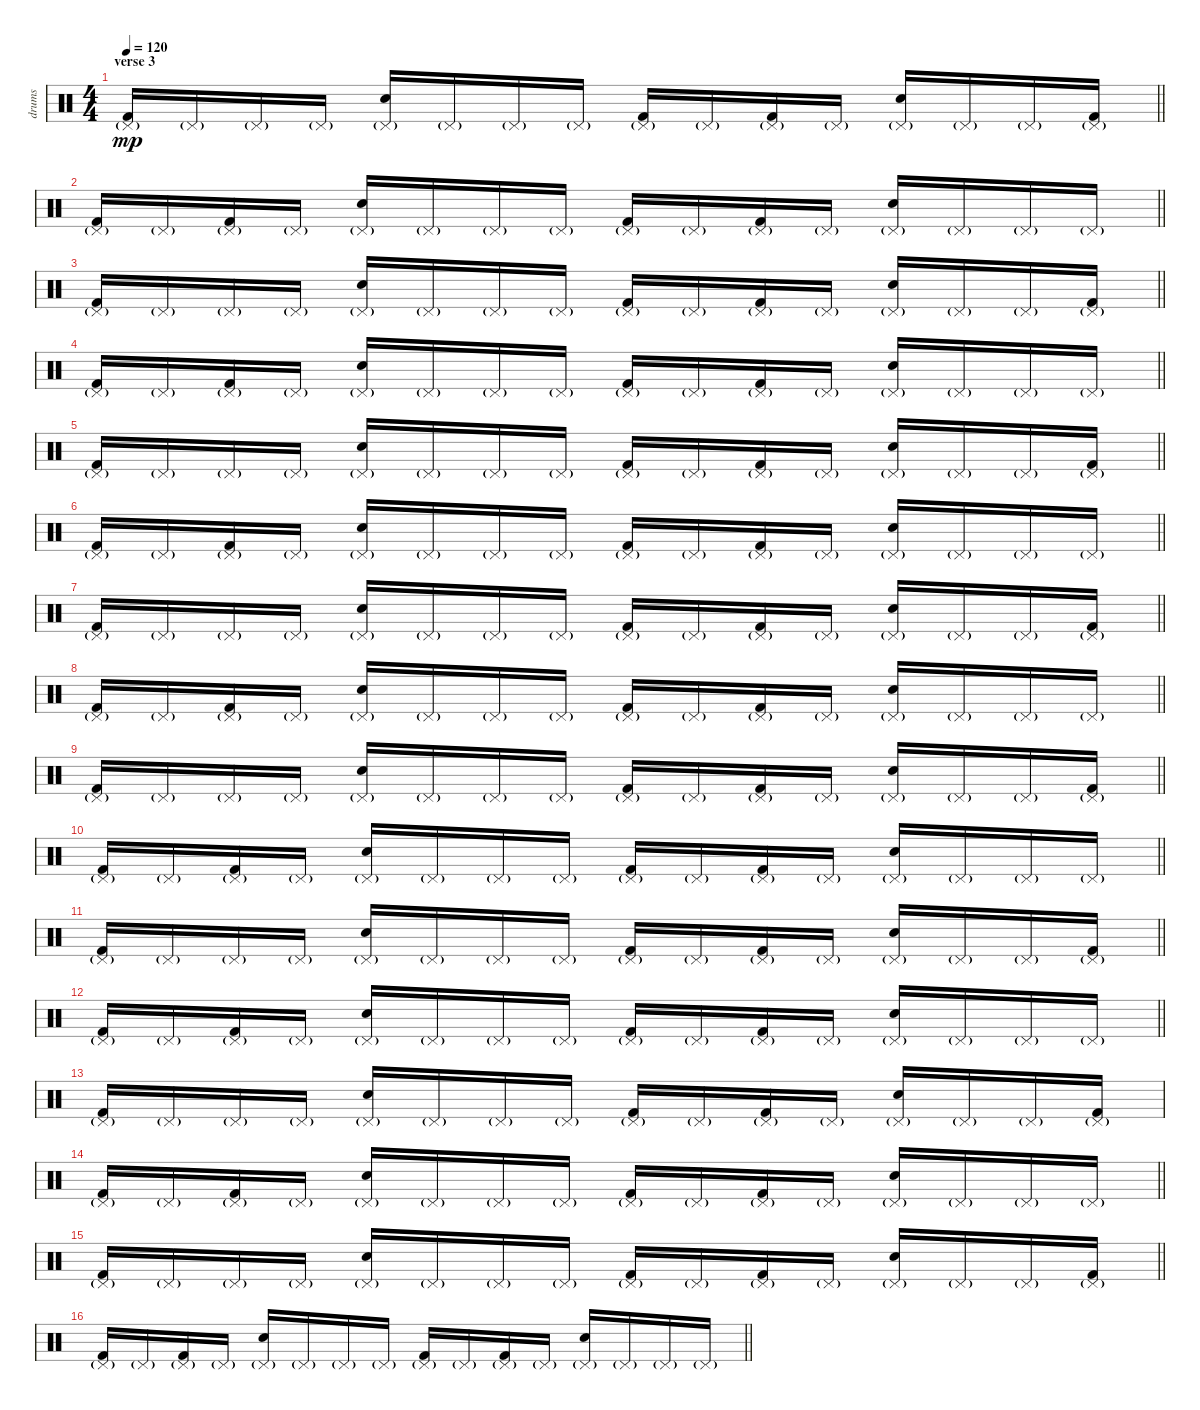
\track ("drums" "drums") {instrument percussion}
\staff {score}
\articulation defaults
\ts (4 4)
\section ("" "verse 3")
\tempo 120
\clef neutral
\barLineRight lightlight
\ks c
("Kick (hit) 2" "Pedal Hi-Hat (hit)"{g}).16{dy mp} "Pedal Hi-Hat (hit)"{g}.16 "Pedal Hi-Hat (hit)"{g}.16 "Pedal Hi-Hat (hit)"{g}.16 ("Hand Clap (hit)" "Pedal Hi-Hat (hit)"{g}).16 "Pedal Hi-Hat (hit)"{g}.16 "Pedal Hi-Hat (hit)"{g}.16 "Pedal Hi-Hat (hit)"{g}.16 ("Kick (hit) 2" "Pedal Hi-Hat (hit)"{g}).16 "Pedal Hi-Hat (hit)"{g}.16 ("Kick (hit) 2" "Pedal Hi-Hat (hit)"{g}).16 "Pedal Hi-Hat (hit)"{g}.16 ("Hand Clap (hit)" "Pedal Hi-Hat (hit)"{g}).16 "Pedal Hi-Hat (hit)"{g}.16 "Pedal Hi-Hat (hit)"{g}.16 ("Kick (hit) 2" "Pedal Hi-Hat (hit)"{g}).16 |
\barLineRight lightlight
("Kick (hit) 2" "Pedal Hi-Hat (hit)"{g}).16 "Pedal Hi-Hat (hit)"{g}.16 ("Kick (hit) 2" "Pedal Hi-Hat (hit)"{g}).16 "Pedal Hi-Hat (hit)"{g}.16 ("Hand Clap (hit)" "Pedal Hi-Hat (hit)"{g}).16 "Pedal Hi-Hat (hit)"{g}.16 "Pedal Hi-Hat (hit)"{g}.16 "Pedal Hi-Hat (hit)"{g}.16 ("Kick (hit) 2" "Pedal Hi-Hat (hit)"{g}).16 "Pedal Hi-Hat (hit)"{g}.16 ("Kick (hit) 2" "Pedal Hi-Hat (hit)"{g}).16 "Pedal Hi-Hat (hit)"{g}.16 ("Hand Clap (hit)" "Pedal Hi-Hat (hit)"{g}).16 "Pedal Hi-Hat (hit)"{g}.16 "Pedal Hi-Hat (hit)"{g}.16 "Pedal Hi-Hat (hit)"{g}.16 |
\barLineRight lightlight
("Kick (hit) 2" "Pedal Hi-Hat (hit)"{g}).16 "Pedal Hi-Hat (hit)"{g}.16 "Pedal Hi-Hat (hit)"{g}.16 "Pedal Hi-Hat (hit)"{g}.16 ("Hand Clap (hit)" "Pedal Hi-Hat (hit)"{g}).16 "Pedal Hi-Hat (hit)"{g}.16 "Pedal Hi-Hat (hit)"{g}.16 "Pedal Hi-Hat (hit)"{g}.16 ("Kick (hit) 2" "Pedal Hi-Hat (hit)"{g}).16 "Pedal Hi-Hat (hit)"{g}.16 ("Kick (hit) 2" "Pedal Hi-Hat (hit)"{g}).16 "Pedal Hi-Hat (hit)"{g}.16 ("Hand Clap (hit)" "Pedal Hi-Hat (hit)"{g}).16 "Pedal Hi-Hat (hit)"{g}.16 "Pedal Hi-Hat (hit)"{g}.16 ("Kick (hit) 2" "Pedal Hi-Hat (hit)"{g}).16 |
\barLineRight lightlight
("Kick (hit) 2" "Pedal Hi-Hat (hit)"{g}).16 "Pedal Hi-Hat (hit)"{g}.16 ("Kick (hit) 2" "Pedal Hi-Hat (hit)"{g}).16 "Pedal Hi-Hat (hit)"{g}.16 ("Hand Clap (hit)" "Pedal Hi-Hat (hit)"{g}).16 "Pedal Hi-Hat (hit)"{g}.16 "Pedal Hi-Hat (hit)"{g}.16 "Pedal Hi-Hat (hit)"{g}.16 ("Kick (hit) 2" "Pedal Hi-Hat (hit)"{g}).16 "Pedal Hi-Hat (hit)"{g}.16 ("Kick (hit) 2" "Pedal Hi-Hat (hit)"{g}).16 "Pedal Hi-Hat (hit)"{g}.16 ("Hand Clap (hit)" "Pedal Hi-Hat (hit)"{g}).16 "Pedal Hi-Hat (hit)"{g}.16 "Pedal Hi-Hat (hit)"{g}.16 "Pedal Hi-Hat (hit)"{g}.16 |
\barLineRight lightlight
("Kick (hit) 2" "Pedal Hi-Hat (hit)"{g}).16 "Pedal Hi-Hat (hit)"{g}.16 "Pedal Hi-Hat (hit)"{g}.16 "Pedal Hi-Hat (hit)"{g}.16 ("Hand Clap (hit)" "Pedal Hi-Hat (hit)"{g}).16 "Pedal Hi-Hat (hit)"{g}.16 "Pedal Hi-Hat (hit)"{g}.16 "Pedal Hi-Hat (hit)"{g}.16 ("Kick (hit) 2" "Pedal Hi-Hat (hit)"{g}).16 "Pedal Hi-Hat (hit)"{g}.16 ("Kick (hit) 2" "Pedal Hi-Hat (hit)"{g}).16 "Pedal Hi-Hat (hit)"{g}.16 ("Hand Clap (hit)" "Pedal Hi-Hat (hit)"{g}).16 "Pedal Hi-Hat (hit)"{g}.16 "Pedal Hi-Hat (hit)"{g}.16 ("Kick (hit) 2" "Pedal Hi-Hat (hit)"{g}).16 |
\barLineRight lightlight
("Kick (hit) 2" "Pedal Hi-Hat (hit)"{g}).16 "Pedal Hi-Hat (hit)"{g}.16 ("Kick (hit) 2" "Pedal Hi-Hat (hit)"{g}).16 "Pedal Hi-Hat (hit)"{g}.16 ("Hand Clap (hit)" "Pedal Hi-Hat (hit)"{g}).16 "Pedal Hi-Hat (hit)"{g}.16 "Pedal Hi-Hat (hit)"{g}.16 "Pedal Hi-Hat (hit)"{g}.16 ("Kick (hit) 2" "Pedal Hi-Hat (hit)"{g}).16 "Pedal Hi-Hat (hit)"{g}.16 ("Kick (hit) 2" "Pedal Hi-Hat (hit)"{g}).16 "Pedal Hi-Hat (hit)"{g}.16 ("Hand Clap (hit)" "Pedal Hi-Hat (hit)"{g}).16 "Pedal Hi-Hat (hit)"{g}.16 "Pedal Hi-Hat (hit)"{g}.16 "Pedal Hi-Hat (hit)"{g}.16 |
\barLineRight lightlight
("Kick (hit) 2" "Pedal Hi-Hat (hit)"{g}).16 "Pedal Hi-Hat (hit)"{g}.16 "Pedal Hi-Hat (hit)"{g}.16 "Pedal Hi-Hat (hit)"{g}.16 ("Hand Clap (hit)" "Pedal Hi-Hat (hit)"{g}).16 "Pedal Hi-Hat (hit)"{g}.16 "Pedal Hi-Hat (hit)"{g}.16 "Pedal Hi-Hat (hit)"{g}.16 ("Kick (hit) 2" "Pedal Hi-Hat (hit)"{g}).16 "Pedal Hi-Hat (hit)"{g}.16 ("Kick (hit) 2" "Pedal Hi-Hat (hit)"{g}).16 "Pedal Hi-Hat (hit)"{g}.16 ("Hand Clap (hit)" "Pedal Hi-Hat (hit)"{g}).16 "Pedal Hi-Hat (hit)"{g}.16 "Pedal Hi-Hat (hit)"{g}.16 ("Kick (hit) 2" "Pedal Hi-Hat (hit)"{g}).16 |
\barLineRight lightlight
("Kick (hit) 2" "Pedal Hi-Hat (hit)"{g}).16 "Pedal Hi-Hat (hit)"{g}.16 ("Kick (hit) 2" "Pedal Hi-Hat (hit)"{g}).16 "Pedal Hi-Hat (hit)"{g}.16 ("Hand Clap (hit)" "Pedal Hi-Hat (hit)"{g}).16 "Pedal Hi-Hat (hit)"{g}.16 "Pedal Hi-Hat (hit)"{g}.16 "Pedal Hi-Hat (hit)"{g}.16 ("Kick (hit) 2" "Pedal Hi-Hat (hit)"{g}).16 "Pedal Hi-Hat (hit)"{g}.16 ("Kick (hit) 2" "Pedal Hi-Hat (hit)"{g}).16 "Pedal Hi-Hat (hit)"{g}.16 ("Hand Clap (hit)" "Pedal Hi-Hat (hit)"{g}).16 "Pedal Hi-Hat (hit)"{g}.16 "Pedal Hi-Hat (hit)"{g}.16 "Pedal Hi-Hat (hit)"{g}.16 |
\barLineRight lightlight
("Kick (hit) 2" "Pedal Hi-Hat (hit)"{g}).16 "Pedal Hi-Hat (hit)"{g}.16 "Pedal Hi-Hat (hit)"{g}.16 "Pedal Hi-Hat (hit)"{g}.16 ("Hand Clap (hit)" "Pedal Hi-Hat (hit)"{g}).16 "Pedal Hi-Hat (hit)"{g}.16 "Pedal Hi-Hat (hit)"{g}.16 "Pedal Hi-Hat (hit)"{g}.16 ("Kick (hit) 2" "Pedal Hi-Hat (hit)"{g}).16 "Pedal Hi-Hat (hit)"{g}.16 ("Kick (hit) 2" "Pedal Hi-Hat (hit)"{g}).16 "Pedal Hi-Hat (hit)"{g}.16 ("Hand Clap (hit)" "Pedal Hi-Hat (hit)"{g}).16 "Pedal Hi-Hat (hit)"{g}.16 "Pedal Hi-Hat (hit)"{g}.16 ("Kick (hit) 2" "Pedal Hi-Hat (hit)"{g}).16 |
\barLineRight lightlight
("Kick (hit) 2" "Pedal Hi-Hat (hit)"{g}).16 "Pedal Hi-Hat (hit)"{g}.16 ("Kick (hit) 2" "Pedal Hi-Hat (hit)"{g}).16 "Pedal Hi-Hat (hit)"{g}.16 ("Hand Clap (hit)" "Pedal Hi-Hat (hit)"{g}).16 "Pedal Hi-Hat (hit)"{g}.16 "Pedal Hi-Hat (hit)"{g}.16 "Pedal Hi-Hat (hit)"{g}.16 ("Kick (hit) 2" "Pedal Hi-Hat (hit)"{g}).16 "Pedal Hi-Hat (hit)"{g}.16 ("Kick (hit) 2" "Pedal Hi-Hat (hit)"{g}).16 "Pedal Hi-Hat (hit)"{g}.16 ("Hand Clap (hit)" "Pedal Hi-Hat (hit)"{g}).16 "Pedal Hi-Hat (hit)"{g}.16 "Pedal Hi-Hat (hit)"{g}.16 "Pedal Hi-Hat (hit)"{g}.16 |
\barLineRight lightlight
("Kick (hit) 2" "Pedal Hi-Hat (hit)"{g}).16 "Pedal Hi-Hat (hit)"{g}.16 "Pedal Hi-Hat (hit)"{g}.16 "Pedal Hi-Hat (hit)"{g}.16 ("Hand Clap (hit)" "Pedal Hi-Hat (hit)"{g}).16 "Pedal Hi-Hat (hit)"{g}.16 "Pedal Hi-Hat (hit)"{g}.16 "Pedal Hi-Hat (hit)"{g}.16 ("Kick (hit) 2" "Pedal Hi-Hat (hit)"{g}).16 "Pedal Hi-Hat (hit)"{g}.16 ("Kick (hit) 2" "Pedal Hi-Hat (hit)"{g}).16 "Pedal Hi-Hat (hit)"{g}.16 ("Hand Clap (hit)" "Pedal Hi-Hat (hit)"{g}).16 "Pedal Hi-Hat (hit)"{g}.16 "Pedal Hi-Hat (hit)"{g}.16 ("Kick (hit) 2" "Pedal Hi-Hat (hit)"{g}).16 |
\barLineRight lightlight
("Kick (hit) 2" "Pedal Hi-Hat (hit)"{g}).16 "Pedal Hi-Hat (hit)"{g}.16 ("Kick (hit) 2" "Pedal Hi-Hat (hit)"{g}).16 "Pedal Hi-Hat (hit)"{g}.16 ("Hand Clap (hit)" "Pedal Hi-Hat (hit)"{g}).16 "Pedal Hi-Hat (hit)"{g}.16 "Pedal Hi-Hat (hit)"{g}.16 "Pedal Hi-Hat (hit)"{g}.16 ("Kick (hit) 2" "Pedal Hi-Hat (hit)"{g}).16 "Pedal Hi-Hat (hit)"{g}.16 ("Kick (hit) 2" "Pedal Hi-Hat (hit)"{g}).16 "Pedal Hi-Hat (hit)"{g}.16 ("Hand Clap (hit)" "Pedal Hi-Hat (hit)"{g}).16 "Pedal Hi-Hat (hit)"{g}.16 "Pedal Hi-Hat (hit)"{g}.16 "Pedal Hi-Hat (hit)"{g}.16 |
("Kick (hit) 2" "Pedal Hi-Hat (hit)"{g}).16 "Pedal Hi-Hat (hit)"{g}.16 "Pedal Hi-Hat (hit)"{g}.16 "Pedal Hi-Hat (hit)"{g}.16 ("Hand Clap (hit)" "Pedal Hi-Hat (hit)"{g}).16 "Pedal Hi-Hat (hit)"{g}.16 "Pedal Hi-Hat (hit)"{g}.16 "Pedal Hi-Hat (hit)"{g}.16 ("Kick (hit) 2" "Pedal Hi-Hat (hit)"{g}).16 "Pedal Hi-Hat (hit)"{g}.16 ("Kick (hit) 2" "Pedal Hi-Hat (hit)"{g}).16 "Pedal Hi-Hat (hit)"{g}.16 ("Hand Clap (hit)" "Pedal Hi-Hat (hit)"{g}).16 "Pedal Hi-Hat (hit)"{g}.16 "Pedal Hi-Hat (hit)"{g}.16 ("Kick (hit) 2" "Pedal Hi-Hat (hit)"{g}).16 |
\barLineRight lightlight
("Kick (hit) 2" "Pedal Hi-Hat (hit)"{g}).16 "Pedal Hi-Hat (hit)"{g}.16 ("Kick (hit) 2" "Pedal Hi-Hat (hit)"{g}).16 "Pedal Hi-Hat (hit)"{g}.16 ("Hand Clap (hit)" "Pedal Hi-Hat (hit)"{g}).16 "Pedal Hi-Hat (hit)"{g}.16 "Pedal Hi-Hat (hit)"{g}.16 "Pedal Hi-Hat (hit)"{g}.16 ("Kick (hit) 2" "Pedal Hi-Hat (hit)"{g}).16 "Pedal Hi-Hat (hit)"{g}.16 ("Kick (hit) 2" "Pedal Hi-Hat (hit)"{g}).16 "Pedal Hi-Hat (hit)"{g}.16 ("Hand Clap (hit)" "Pedal Hi-Hat (hit)"{g}).16 "Pedal Hi-Hat (hit)"{g}.16 "Pedal Hi-Hat (hit)"{g}.16 "Pedal Hi-Hat (hit)"{g}.16 |
\barLineRight lightlight
("Kick (hit) 2" "Pedal Hi-Hat (hit)"{g}).16 "Pedal Hi-Hat (hit)"{g}.16 "Pedal Hi-Hat (hit)"{g}.16 "Pedal Hi-Hat (hit)"{g}.16 ("Hand Clap (hit)" "Pedal Hi-Hat (hit)"{g}).16 "Pedal Hi-Hat (hit)"{g}.16 "Pedal Hi-Hat (hit)"{g}.16 "Pedal Hi-Hat (hit)"{g}.16 ("Kick (hit) 2" "Pedal Hi-Hat (hit)"{g}).16 "Pedal Hi-Hat (hit)"{g}.16 ("Kick (hit) 2" "Pedal Hi-Hat (hit)"{g}).16 "Pedal Hi-Hat (hit)"{g}.16 ("Hand Clap (hit)" "Pedal Hi-Hat (hit)"{g}).16 "Pedal Hi-Hat (hit)"{g}.16 "Pedal Hi-Hat (hit)"{g}.16 ("Kick (hit) 2" "Pedal Hi-Hat (hit)"{g}).16 |
\barLineRight lightlight
("Kick (hit) 2" "Pedal Hi-Hat (hit)"{g}).16 "Pedal Hi-Hat (hit)"{g}.16 ("Kick (hit) 2" "Pedal Hi-Hat (hit)"{g}).16 "Pedal Hi-Hat (hit)"{g}.16 ("Hand Clap (hit)" "Pedal Hi-Hat (hit)"{g}).16 "Pedal Hi-Hat (hit)"{g}.16 "Pedal Hi-Hat (hit)"{g}.16 "Pedal Hi-Hat (hit)"{g}.16 ("Kick (hit) 2" "Pedal Hi-Hat (hit)"{g}).16 "Pedal Hi-Hat (hit)"{g}.16 ("Kick (hit) 2" "Pedal Hi-Hat (hit)"{g}).16 "Pedal Hi-Hat (hit)"{g}.16 ("Hand Clap (hit)" "Pedal Hi-Hat (hit)"{g}).16 "Pedal Hi-Hat (hit)"{g}.16 "Pedal Hi-Hat (hit)"{g}.16 "Pedal Hi-Hat (hit)"{g}.16
